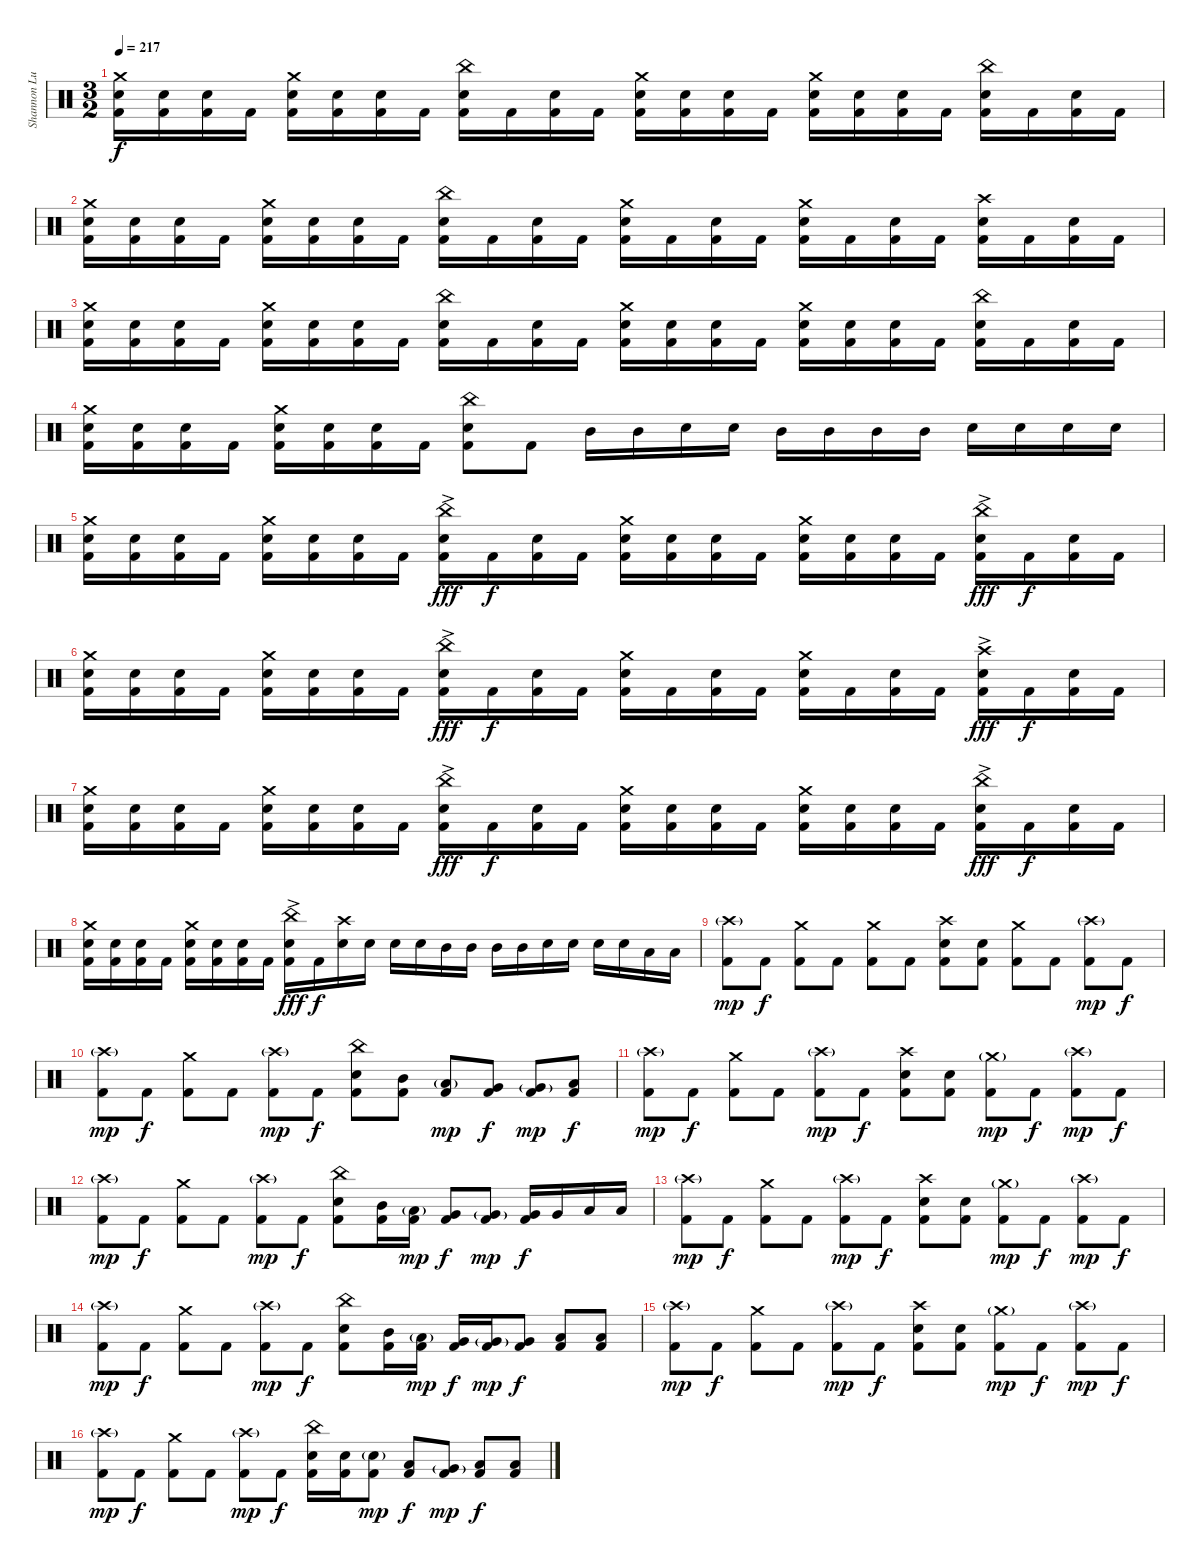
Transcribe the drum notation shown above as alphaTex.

\track ("Shannon Lucas [Drums (Since 2007)]" "Shannon Lu") {instrument percussion}
\staff {score}
\articulation defaults
\ts (3 2)
\tempo 217
\clef neutral
\ks c
("Crash medium (hit)" "Snare (hit) 2" "Kick (hit) 2").16{dy f} ("Snare (hit) 2" "Kick (hit) 2").16 ("Snare (hit) 2" "Kick (hit) 2").16 "Kick (hit) 2".16 ("Crash medium (hit)" "Snare (hit) 2" "Kick (hit) 2").16 ("Snare (hit) 2" "Kick (hit) 2").16 ("Snare (hit) 2" "Kick (hit) 2").16 "Kick (hit) 2".16 ("China (hit)" "Snare (hit) 2" "Kick (hit) 2").16 "Kick (hit) 2".16 ("Snare (hit) 2" "Kick (hit) 2").16 "Kick (hit) 2".16 ("Crash medium (hit)" "Snare (hit) 2" "Kick (hit) 2").16 ("Snare (hit) 2" "Kick (hit) 2").16 ("Snare (hit) 2" "Kick (hit) 2").16 "Kick (hit) 2".16 ("Crash medium (hit)" "Snare (hit) 2" "Kick (hit) 2").16 ("Snare (hit) 2" "Kick (hit) 2").16 ("Snare (hit) 2" "Kick (hit) 2").16 "Kick (hit) 2".16 ("China (hit)" "Snare (hit) 2" "Kick (hit) 2").16 "Kick (hit) 2".16 ("Snare (hit) 2" "Kick (hit) 2").16 "Kick (hit) 2".16 |
("Crash medium (hit)" "Snare (hit) 2" "Kick (hit) 2").16 ("Snare (hit) 2" "Kick (hit) 2").16 ("Snare (hit) 2" "Kick (hit) 2").16 "Kick (hit) 2".16 ("Crash medium (hit)" "Snare (hit) 2" "Kick (hit) 2").16 ("Snare (hit) 2" "Kick (hit) 2").16 ("Snare (hit) 2" "Kick (hit) 2").16 "Kick (hit) 2".16 ("China (hit)" "Snare (hit) 2" "Kick (hit) 2").16 "Kick (hit) 2".16 ("Snare (hit) 2" "Kick (hit) 2").16 "Kick (hit) 2".16 ("Crash medium (hit)" "Snare (hit) 2" "Kick (hit) 2").16 "Kick (hit) 2".16 ("Snare (hit) 2" "Kick (hit) 2").16 "Kick (hit) 2".16 ("Crash medium (hit)" "Snare (hit) 2" "Kick (hit) 2").16 "Kick (hit) 2".16 ("Snare (hit) 2" "Kick (hit) 2").16 "Kick (hit) 2".16 ("Crash high (hit)" "Snare (hit) 2" "Kick (hit) 2").16 "Kick (hit) 2".16 ("Snare (hit) 2" "Kick (hit) 2").16 "Kick (hit) 2".16 |
("Crash medium (hit)" "Snare (hit) 2" "Kick (hit) 2").16 ("Snare (hit) 2" "Kick (hit) 2").16 ("Snare (hit) 2" "Kick (hit) 2").16 "Kick (hit) 2".16 ("Crash medium (hit)" "Snare (hit) 2" "Kick (hit) 2").16 ("Snare (hit) 2" "Kick (hit) 2").16 ("Snare (hit) 2" "Kick (hit) 2").16 "Kick (hit) 2".16 ("China (hit)" "Snare (hit) 2" "Kick (hit) 2").16 "Kick (hit) 2".16 ("Snare (hit) 2" "Kick (hit) 2").16 "Kick (hit) 2".16 ("Crash medium (hit)" "Snare (hit) 2" "Kick (hit) 2").16 ("Snare (hit) 2" "Kick (hit) 2").16 ("Snare (hit) 2" "Kick (hit) 2").16 "Kick (hit) 2".16 ("Crash medium (hit)" "Snare (hit) 2" "Kick (hit) 2").16 ("Snare (hit) 2" "Kick (hit) 2").16 ("Snare (hit) 2" "Kick (hit) 2").16 "Kick (hit) 2".16 ("China (hit)" "Snare (hit) 2" "Kick (hit) 2").16 "Kick (hit) 2".16 ("Snare (hit) 2" "Kick (hit) 2").16 "Kick (hit) 2".16 |
("Crash medium (hit)" "Snare (hit) 2" "Kick (hit) 2").16 ("Snare (hit) 2" "Kick (hit) 2").16 ("Snare (hit) 2" "Kick (hit) 2").16 "Kick (hit) 2".16 ("Crash medium (hit)" "Snare (hit) 2" "Kick (hit) 2").16 ("Snare (hit) 2" "Kick (hit) 2").16 ("Snare (hit) 2" "Kick (hit) 2").16 "Kick (hit) 2".16 ("China (hit)" "Snare (hit) 2" "Kick (hit) 2").8 "Kick (hit) 2".8 "Mid Tom (hit)".16 "Mid Tom (hit)".16 "Snare (hit) 2".16 "Snare (hit) 2".16 "Mid Tom (hit)".16 "Mid Tom (hit)".16 "Mid Tom (hit)".16 "Mid Tom (hit)".16 "Snare (hit) 2".16 "Snare (hit) 2".16 "Snare (hit) 2".16 "Snare (hit) 2".16 |
("Crash medium (hit)" "Snare (hit) 2" "Kick (hit) 2").16 ("Snare (hit) 2" "Kick (hit) 2").16 ("Snare (hit) 2" "Kick (hit) 2").16 "Kick (hit) 2".16 ("Crash medium (hit)" "Snare (hit) 2" "Kick (hit) 2").16 ("Snare (hit) 2" "Kick (hit) 2").16 ("Snare (hit) 2" "Kick (hit) 2").16 "Kick (hit) 2".16 ("China (hit)"{ac} "Snare (hit) 2"{ac} "Kick (hit) 2"{ac}).16{dy fff} "Kick (hit) 2".16{dy f} ("Snare (hit) 2" "Kick (hit) 2").16 "Kick (hit) 2".16 ("Crash medium (hit)" "Snare (hit) 2" "Kick (hit) 2").16 ("Snare (hit) 2" "Kick (hit) 2").16 ("Snare (hit) 2" "Kick (hit) 2").16 "Kick (hit) 2".16 ("Crash medium (hit)" "Snare (hit) 2" "Kick (hit) 2").16 ("Snare (hit) 2" "Kick (hit) 2").16 ("Snare (hit) 2" "Kick (hit) 2").16 "Kick (hit) 2".16 ("China (hit)"{ac} "Snare (hit) 2"{ac} "Kick (hit) 2"{ac}).16{dy fff} "Kick (hit) 2".16{dy f} ("Snare (hit) 2" "Kick (hit) 2").16 "Kick (hit) 2".16 |
("Crash medium (hit)" "Snare (hit) 2" "Kick (hit) 2").16 ("Snare (hit) 2" "Kick (hit) 2").16 ("Snare (hit) 2" "Kick (hit) 2").16 "Kick (hit) 2".16 ("Crash medium (hit)" "Snare (hit) 2" "Kick (hit) 2").16 ("Snare (hit) 2" "Kick (hit) 2").16 ("Snare (hit) 2" "Kick (hit) 2").16 "Kick (hit) 2".16 ("China (hit)"{ac} "Snare (hit) 2"{ac} "Kick (hit) 2"{ac}).16{dy fff} "Kick (hit) 2".16{dy f} ("Snare (hit) 2" "Kick (hit) 2").16 "Kick (hit) 2".16 ("Crash medium (hit)" "Snare (hit) 2" "Kick (hit) 2").16 "Kick (hit) 2".16 ("Snare (hit) 2" "Kick (hit) 2").16 "Kick (hit) 2".16 ("Crash medium (hit)" "Snare (hit) 2" "Kick (hit) 2").16 "Kick (hit) 2".16 ("Snare (hit) 2" "Kick (hit) 2").16 "Kick (hit) 2".16 ("Crash high (hit)"{ac} "Snare (hit) 2"{ac} "Kick (hit) 2"{ac}).16{dy fff} "Kick (hit) 2".16{dy f} ("Snare (hit) 2" "Kick (hit) 2").16 "Kick (hit) 2".16 |
("Crash medium (hit)" "Snare (hit) 2" "Kick (hit) 2").16 ("Snare (hit) 2" "Kick (hit) 2").16 ("Snare (hit) 2" "Kick (hit) 2").16 "Kick (hit) 2".16 ("Crash medium (hit)" "Snare (hit) 2" "Kick (hit) 2").16 ("Snare (hit) 2" "Kick (hit) 2").16 ("Snare (hit) 2" "Kick (hit) 2").16 "Kick (hit) 2".16 ("China (hit)"{ac} "Snare (hit) 2"{ac} "Kick (hit) 2"{ac}).16{dy fff} "Kick (hit) 2".16{dy f} ("Snare (hit) 2" "Kick (hit) 2").16 "Kick (hit) 2".16 ("Crash medium (hit)" "Snare (hit) 2" "Kick (hit) 2").16 ("Snare (hit) 2" "Kick (hit) 2").16 ("Snare (hit) 2" "Kick (hit) 2").16 "Kick (hit) 2".16 ("Crash medium (hit)" "Snare (hit) 2" "Kick (hit) 2").16 ("Snare (hit) 2" "Kick (hit) 2").16 ("Snare (hit) 2" "Kick (hit) 2").16 "Kick (hit) 2".16 ("China (hit)"{ac} "Snare (hit) 2"{ac} "Kick (hit) 2"{ac}).16{dy fff} "Kick (hit) 2".16{dy f} ("Snare (hit) 2" "Kick (hit) 2").16 "Kick (hit) 2".16 |
("Crash medium (hit)" "Snare (hit) 2" "Kick (hit) 2").16 ("Snare (hit) 2" "Kick (hit) 2").16 ("Snare (hit) 2" "Kick (hit) 2").16 "Kick (hit) 2".16 ("Crash medium (hit)" "Snare (hit) 2" "Kick (hit) 2").16 ("Snare (hit) 2" "Kick (hit) 2").16 ("Snare (hit) 2" "Kick (hit) 2").16 "Kick (hit) 2".16 ("China (hit)"{ac} "Snare (hit) 2"{ac} "Kick (hit) 2"{ac}).16{dy fff} "Kick (hit) 2".16{dy f} ("Crash high (hit)" "Snare (hit) 2").16 "Snare (hit) 2".16 "Snare (hit) 2".16 "Snare (hit) 2".16 "Mid Tom (hit)".16 "Mid Tom (hit)".16 "Mid Tom (hit)".16 "Mid Tom (hit)".16 "Snare (hit) 2".16 "Snare (hit) 2".16 "Snare (hit) 2".16 "Snare (hit) 2".16 "Low Tom (hit)".16 "Low Tom (hit)".16 |
("Crash high (hit)"{g} "Kick (hit) 2").8{dy mp} "Kick (hit) 2".8{dy f} ("Crash medium (hit)" "Kick (hit) 2").8 "Kick (hit) 2".8 ("Crash medium (hit)" "Kick (hit) 2").8 "Kick (hit) 2".8 ("Crash high (hit)" "Snare (hit) 2" "Kick (hit) 2").8 ("Snare (hit) 2" "Kick (hit) 2").8 ("Crash medium (hit)" "Kick (hit) 2").8 "Kick (hit) 2".8 ("Crash high (hit)"{g} "Kick (hit) 2").8{dy mp} "Kick (hit) 2".8{dy f} |
("Crash high (hit)"{g} "Kick (hit) 2").8{dy mp} "Kick (hit) 2".8{dy f} ("Crash medium (hit)" "Kick (hit) 2").8 "Kick (hit) 2".8 ("Crash high (hit)"{g} "Kick (hit) 2").8{dy mp} "Kick (hit) 2".8{dy f} ("China (hit)" "Snare (hit) 2" "Kick (hit) 2").8 ("Mid Tom (hit)" "Kick (hit) 2").8 ("Low Tom (hit)"{g} "Kick (hit) 2").8{dy mp} ("Very Low Tom (hit)" "Kick (hit) 2").8{dy f} ("Very Low Tom (hit)"{g} "Kick (hit) 2").8{dy mp} ("Low Floor Tom (hit)" "Kick (hit) 2").8{dy f} |
("Crash high (hit)"{g} "Kick (hit) 2").8{dy mp} "Kick (hit) 2".8{dy f} ("Crash medium (hit)" "Kick (hit) 2").8 "Kick (hit) 2".8 ("Crash high (hit)"{g} "Kick (hit) 2").8{dy mp} "Kick (hit) 2".8{dy f} ("Crash high (hit)" "Snare (hit) 2" "Kick (hit) 2").8 ("Snare (hit) 2" "Kick (hit) 2").8 ("Crash medium (hit)"{g} "Kick (hit) 2").8{dy mp} "Kick (hit) 2".8{dy f} ("Crash high (hit)"{g} "Kick (hit) 2").8{dy mp} "Kick (hit) 2".8{dy f} |
("Crash high (hit)"{g} "Kick (hit) 2").8{dy mp} "Kick (hit) 2".8{dy f} ("Crash medium (hit)" "Kick (hit) 2").8 "Kick (hit) 2".8 ("Crash high (hit)"{g} "Kick (hit) 2").8{dy mp} "Kick (hit) 2".8{dy f} ("China (hit)" "Snare (hit) 2" "Kick (hit) 2").8 ("Mid Tom (hit)" "Kick (hit) 2").16 ("Low Tom (hit)"{g} "Kick (hit) 2").16{dy mp} ("Very Low Tom (hit)" "Kick (hit) 2").8{dy f} ("Very Low Tom (hit)"{g} "Kick (hit) 2").8{dy mp} ("Very Low Tom (hit)" "Kick (hit) 2").16{dy f} "Very Low Tom (hit)".16 "Low Floor Tom (hit)".16 "Low Floor Tom (hit)".16 |
("Crash high (hit)"{g} "Kick (hit) 2").8{dy mp} "Kick (hit) 2".8{dy f} ("Crash medium (hit)" "Kick (hit) 2").8 "Kick (hit) 2".8 ("Crash high (hit)"{g} "Kick (hit) 2").8{dy mp} "Kick (hit) 2".8{dy f} ("Crash high (hit)" "Snare (hit) 2" "Kick (hit) 2").8 ("Snare (hit) 2" "Kick (hit) 2").8 ("Crash medium (hit)"{g} "Kick (hit) 2").8{dy mp} "Kick (hit) 2".8{dy f} ("Crash high (hit)"{g} "Kick (hit) 2").8{dy mp} "Kick (hit) 2".8{dy f} |
("Crash high (hit)"{g} "Kick (hit) 2").8{dy mp} "Kick (hit) 2".8{dy f} ("Crash medium (hit)" "Kick (hit) 2").8 "Kick (hit) 2".8 ("Crash high (hit)"{g} "Kick (hit) 2").8{dy mp} "Kick (hit) 2".8{dy f} ("China (hit)" "Snare (hit) 2" "Kick (hit) 2").8 ("Mid Tom (hit)" "Kick (hit) 2").16 ("Low Tom (hit)"{g} "Kick (hit) 2").16{dy mp} ("Very Low Tom (hit)" "Kick (hit) 2").16{dy f} ("Very Low Tom (hit)"{g} "Kick (hit) 2").16{dy mp} ("Very Low Tom (hit)" "Kick (hit) 2").8{dy f} ("Low Floor Tom (hit)" "Kick (hit) 2").8 ("Low Floor Tom (hit)" "Kick (hit) 2").8 |
("Crash high (hit)"{g} "Kick (hit) 2").8{dy mp} "Kick (hit) 2".8{dy f} ("Crash medium (hit)" "Kick (hit) 2").8 "Kick (hit) 2".8 ("Crash high (hit)"{g} "Kick (hit) 2").8{dy mp} "Kick (hit) 2".8{dy f} ("Crash high (hit)" "Snare (hit) 2" "Kick (hit) 2").8 ("Snare (hit) 2" "Kick (hit) 2").8 ("Crash medium (hit)"{g} "Kick (hit) 2").8{dy mp} "Kick (hit) 2".8{dy f} ("Crash high (hit)"{g} "Kick (hit) 2").8{dy mp} "Kick (hit) 2".8{dy f} |
("Crash high (hit)"{g} "Kick (hit) 2").8{dy mp} "Kick (hit) 2".8{dy f} ("Crash medium (hit)" "Kick (hit) 2").8 "Kick (hit) 2".8 ("Crash high (hit)"{g} "Kick (hit) 2").8{dy mp} "Kick (hit) 2".8{dy f} ("China (hit)" "Snare (hit) 2" "Kick (hit) 2").16 ("Snare (hit) 2" "Kick (hit) 2").16 ("Snare (hit) 2"{g} "Kick (hit) 2").8{dy mp} ("Low Tom (hit)" "Kick (hit) 2").8{dy f} ("Very Low Tom (hit)"{g} "Kick (hit) 2").8{dy mp} ("Low Floor Tom (hit)" "Kick (hit) 2").8{dy f} ("Low Floor Tom (hit)" "Kick (hit) 2").8
